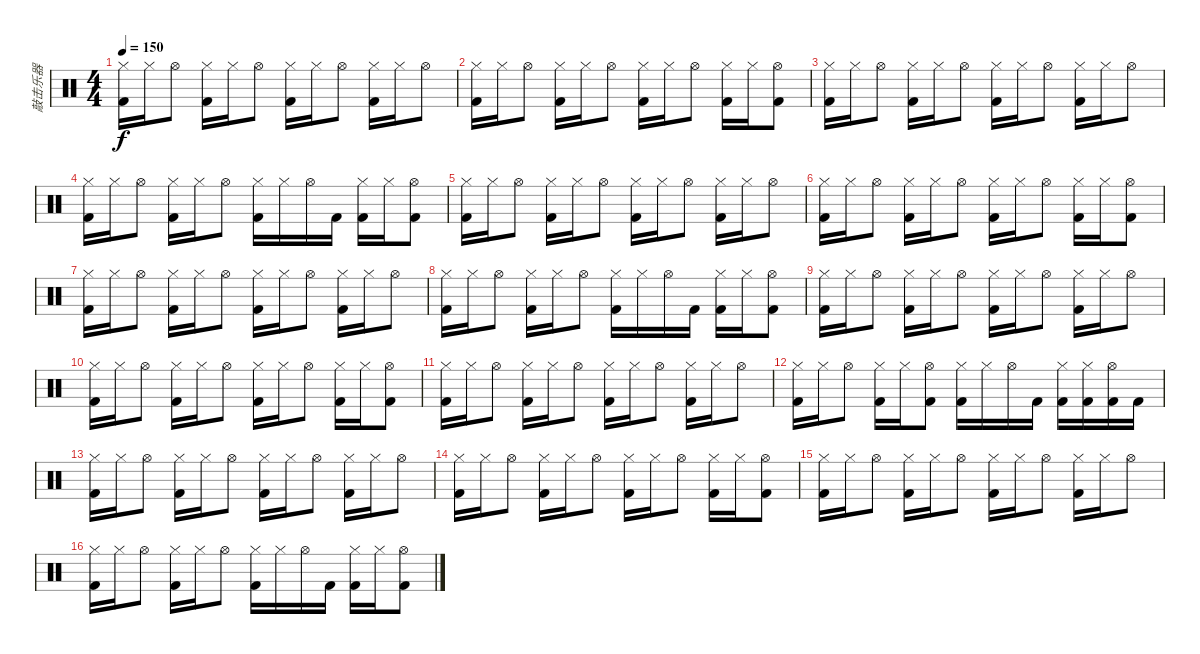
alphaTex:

\track ("敲击乐器" "敲击乐器") {instrument percussion}
\staff {score}
\articulation defaults
\ts (4 4)
\tempo 150
\clef neutral
\ks c
("Hi-Hat (closed)" "Kick (hit) 2").16{dy f} "Hi-Hat (closed)".16 "Hi-Hat (open)".8 ("Hi-Hat (closed)" "Kick (hit) 2").16 "Hi-Hat (closed)".16 "Hi-Hat (open)".8 ("Hi-Hat (closed)" "Kick (hit) 2").16 "Hi-Hat (closed)".16 "Hi-Hat (open)".8 ("Hi-Hat (closed)" "Kick (hit) 2").16 "Hi-Hat (closed)".16 "Hi-Hat (open)".8 |
("Hi-Hat (closed)" "Kick (hit) 2").16 "Hi-Hat (closed)".16 "Hi-Hat (open)".8 ("Hi-Hat (closed)" "Kick (hit) 2").16 "Hi-Hat (closed)".16 "Hi-Hat (open)".8 ("Hi-Hat (closed)" "Kick (hit) 2").16 "Hi-Hat (closed)".16 "Hi-Hat (open)".8 ("Hi-Hat (closed)" "Kick (hit) 2").16 "Hi-Hat (closed)".16 ("Hi-Hat (open)" "Kick (hit) 2").8 |
("Hi-Hat (closed)" "Kick (hit) 2").16 "Hi-Hat (closed)".16 "Hi-Hat (open)".8 ("Hi-Hat (closed)" "Kick (hit) 2").16 "Hi-Hat (closed)".16 "Hi-Hat (open)".8 ("Hi-Hat (closed)" "Kick (hit) 2").16 "Hi-Hat (closed)".16 "Hi-Hat (open)".8 ("Hi-Hat (closed)" "Kick (hit) 2").16 "Hi-Hat (closed)".16 "Hi-Hat (open)".8 |
("Hi-Hat (closed)" "Kick (hit) 2").16 "Hi-Hat (closed)".16 "Hi-Hat (open)".8 ("Hi-Hat (closed)" "Kick (hit) 2").16 "Hi-Hat (closed)".16 "Hi-Hat (open)".8 ("Hi-Hat (closed)" "Kick (hit) 2").16 "Hi-Hat (closed)".16 "Hi-Hat (open)".16 "Kick (hit) 2".16 ("Hi-Hat (closed)" "Kick (hit) 2").16 "Hi-Hat (closed)".16 ("Hi-Hat (open)" "Kick (hit) 2").8 |
("Hi-Hat (closed)" "Kick (hit) 2").16 "Hi-Hat (closed)".16 "Hi-Hat (open)".8 ("Hi-Hat (closed)" "Kick (hit) 2").16 "Hi-Hat (closed)".16 "Hi-Hat (open)".8 ("Hi-Hat (closed)" "Kick (hit) 2").16 "Hi-Hat (closed)".16 "Hi-Hat (open)".8 ("Hi-Hat (closed)" "Kick (hit) 2").16 "Hi-Hat (closed)".16 "Hi-Hat (open)".8 |
("Hi-Hat (closed)" "Kick (hit) 2").16 "Hi-Hat (closed)".16 "Hi-Hat (open)".8 ("Hi-Hat (closed)" "Kick (hit) 2").16 "Hi-Hat (closed)".16 "Hi-Hat (open)".8 ("Hi-Hat (closed)" "Kick (hit) 2").16 "Hi-Hat (closed)".16 "Hi-Hat (open)".8 ("Hi-Hat (closed)" "Kick (hit) 2").16 "Hi-Hat (closed)".16 ("Hi-Hat (open)" "Kick (hit) 2").8 |
("Hi-Hat (closed)" "Kick (hit) 2").16 "Hi-Hat (closed)".16 "Hi-Hat (open)".8 ("Hi-Hat (closed)" "Kick (hit) 2").16 "Hi-Hat (closed)".16 "Hi-Hat (open)".8 ("Hi-Hat (closed)" "Kick (hit) 2").16 "Hi-Hat (closed)".16 "Hi-Hat (open)".8 ("Hi-Hat (closed)" "Kick (hit) 2").16 "Hi-Hat (closed)".16 "Hi-Hat (open)".8 |
("Hi-Hat (closed)" "Kick (hit) 2").16 "Hi-Hat (closed)".16 "Hi-Hat (open)".8 ("Hi-Hat (closed)" "Kick (hit) 2").16 "Hi-Hat (closed)".16 "Hi-Hat (open)".8 ("Hi-Hat (closed)" "Kick (hit) 2").16 "Hi-Hat (closed)".16 "Hi-Hat (open)".16 "Kick (hit) 2".16 ("Hi-Hat (closed)" "Kick (hit) 2").16 "Hi-Hat (closed)".16 ("Hi-Hat (open)" "Kick (hit) 2").8 |
("Hi-Hat (closed)" "Kick (hit) 2").16 "Hi-Hat (closed)".16 "Hi-Hat (open)".8 ("Hi-Hat (closed)" "Kick (hit) 2").16 "Hi-Hat (closed)".16 "Hi-Hat (open)".8 ("Hi-Hat (closed)" "Kick (hit) 2").16 "Hi-Hat (closed)".16 "Hi-Hat (open)".8 ("Hi-Hat (closed)" "Kick (hit) 2").16 "Hi-Hat (closed)".16 "Hi-Hat (open)".8 |
("Hi-Hat (closed)" "Kick (hit) 2").16 "Hi-Hat (closed)".16 "Hi-Hat (open)".8 ("Hi-Hat (closed)" "Kick (hit) 2").16 "Hi-Hat (closed)".16 "Hi-Hat (open)".8 ("Hi-Hat (closed)" "Kick (hit) 2").16 "Hi-Hat (closed)".16 "Hi-Hat (open)".8 ("Hi-Hat (closed)" "Kick (hit) 2").16 "Hi-Hat (closed)".16 ("Hi-Hat (open)" "Kick (hit) 2").8 |
("Hi-Hat (closed)" "Kick (hit) 2").16 "Hi-Hat (closed)".16 "Hi-Hat (open)".8 ("Hi-Hat (closed)" "Kick (hit) 2").16 "Hi-Hat (closed)".16 "Hi-Hat (open)".8 ("Hi-Hat (closed)" "Kick (hit) 2").16 "Hi-Hat (closed)".16 "Hi-Hat (open)".8 ("Hi-Hat (closed)" "Kick (hit) 2").16 "Hi-Hat (closed)".16 "Hi-Hat (open)".8 |
("Hi-Hat (closed)" "Kick (hit) 2").16 "Hi-Hat (closed)".16 "Hi-Hat (open)".8 ("Hi-Hat (closed)" "Kick (hit) 2").16 "Hi-Hat (closed)".16 ("Hi-Hat (open)" "Kick (hit) 2").8 ("Hi-Hat (closed)" "Kick (hit) 2").16 "Hi-Hat (closed)".16 "Hi-Hat (open)".16 "Kick (hit) 2".16 ("Hi-Hat (closed)" "Kick (hit) 2").16 ("Hi-Hat (closed)" "Kick (hit) 2").16 ("Hi-Hat (open)" "Kick (hit) 2").16 "Kick (hit) 2".16 |
("Hi-Hat (closed)" "Kick (hit) 2").16 "Hi-Hat (closed)".16 "Hi-Hat (open)".8 ("Hi-Hat (closed)" "Kick (hit) 2").16 "Hi-Hat (closed)".16 "Hi-Hat (open)".8 ("Hi-Hat (closed)" "Kick (hit) 2").16 "Hi-Hat (closed)".16 "Hi-Hat (open)".8 ("Hi-Hat (closed)" "Kick (hit) 2").16 "Hi-Hat (closed)".16 "Hi-Hat (open)".8 |
("Hi-Hat (closed)" "Kick (hit) 2").16 "Hi-Hat (closed)".16 "Hi-Hat (open)".8 ("Hi-Hat (closed)" "Kick (hit) 2").16 "Hi-Hat (closed)".16 "Hi-Hat (open)".8 ("Hi-Hat (closed)" "Kick (hit) 2").16 "Hi-Hat (closed)".16 "Hi-Hat (open)".8 ("Hi-Hat (closed)" "Kick (hit) 2").16 "Hi-Hat (closed)".16 ("Hi-Hat (open)" "Kick (hit) 2").8 |
("Hi-Hat (closed)" "Kick (hit) 2").16 "Hi-Hat (closed)".16 "Hi-Hat (open)".8 ("Hi-Hat (closed)" "Kick (hit) 2").16 "Hi-Hat (closed)".16 "Hi-Hat (open)".8 ("Hi-Hat (closed)" "Kick (hit) 2").16 "Hi-Hat (closed)".16 "Hi-Hat (open)".8 ("Hi-Hat (closed)" "Kick (hit) 2").16 "Hi-Hat (closed)".16 "Hi-Hat (open)".8 |
("Hi-Hat (closed)" "Kick (hit) 2").16 "Hi-Hat (closed)".16 "Hi-Hat (open)".8 ("Hi-Hat (closed)" "Kick (hit) 2").16 "Hi-Hat (closed)".16 "Hi-Hat (open)".8 ("Hi-Hat (closed)" "Kick (hit) 2").16 "Hi-Hat (closed)".16 "Hi-Hat (open)".16 "Kick (hit) 2".16 ("Hi-Hat (closed)" "Kick (hit) 2").16 "Hi-Hat (closed)".16 ("Hi-Hat (open)" "Kick (hit) 2").8
